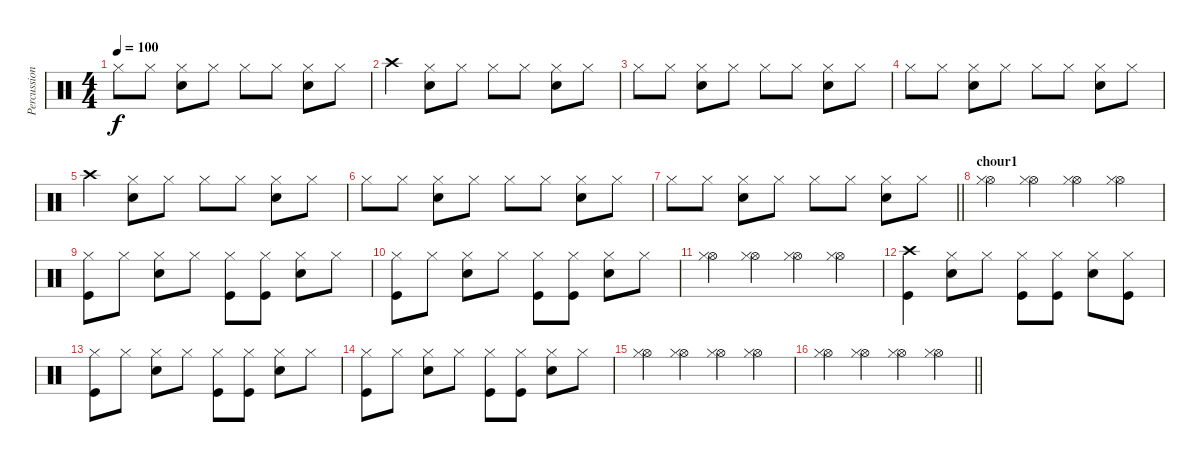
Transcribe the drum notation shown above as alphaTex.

\track ("Percussioni" "Percussion") {instrument percussion}
\staff {score}
\articulation defaults
\ts (4 4)
\tempo 100
\clef neutral
\ks c "Hi-Hat (closed)".8{dy f} "Hi-Hat (closed)".8
("Hi-Hat (closed)" "Snare (hit) 2").8 "Hi-Hat (closed)".8 "Hi-Hat (closed)".8 "Hi-Hat (closed)".8 ("Hi-Hat (closed)" "Snare (hit) 2").8 "Hi-Hat (closed)".8 |
"Crash high (hit)".4 ("Hi-Hat (closed)" "Snare (hit) 2").8 "Hi-Hat (closed)".8 "Hi-Hat (closed)".8 "Hi-Hat (closed)".8 ("Hi-Hat (closed)" "Snare (hit) 2").8 "Hi-Hat (closed)".8 |
"Hi-Hat (closed)".8 "Hi-Hat (closed)".8 ("Hi-Hat (closed)" "Snare (hit) 2").8 "Hi-Hat (closed)".8 "Hi-Hat (closed)".8 "Hi-Hat (closed)".8 ("Hi-Hat (closed)" "Snare (hit) 2").8 "Hi-Hat (closed)".8 |
"Hi-Hat (closed)".8 "Hi-Hat (closed)".8 ("Hi-Hat (closed)" "Snare (hit) 2").8 "Hi-Hat (closed)".8 "Hi-Hat (closed)".8 "Hi-Hat (closed)".8 ("Hi-Hat (closed)" "Snare (hit) 2").8 "Hi-Hat (closed)".8 |
"Crash high (hit)".4 ("Hi-Hat (closed)" "Snare (hit) 2").8 "Hi-Hat (closed)".8 "Hi-Hat (closed)".8 "Hi-Hat (closed)".8 ("Hi-Hat (closed)" "Snare (hit) 2").8 "Hi-Hat (closed)".8 |
"Hi-Hat (closed)".8 "Hi-Hat (closed)".8 ("Hi-Hat (closed)" "Snare (hit) 2").8 "Hi-Hat (closed)".8 "Hi-Hat (closed)".8 "Hi-Hat (closed)".8 ("Hi-Hat (closed)" "Snare (hit) 2").8 "Hi-Hat (closed)".8 |
\barLineRight lightlight "Hi-Hat (closed)".8 "Hi-Hat (closed)".8
("Hi-Hat (closed)" "Snare (hit) 2").8 "Hi-Hat (closed)".8 "Hi-Hat (closed)".8 "Hi-Hat (closed)".8 ("Hi-Hat (closed)" "Snare (hit) 2").8 "Hi-Hat (closed)".8 |
\section ("" "chour1")
("Hi-Hat (open)" "Hi-Hat (closed)").4 ("Hi-Hat (open)" "Hi-Hat (closed)").4 ("Hi-Hat (open)" "Hi-Hat (closed)").4 ("Hi-Hat (open)" "Hi-Hat (closed)").4 |
("Hi-Hat (closed)" "Kick (hit)").8 "Hi-Hat (closed)".8 ("Hi-Hat (closed)" "Snare (hit) 2").8 "Hi-Hat (closed)".8 ("Hi-Hat (closed)" "Kick (hit)").8 ("Hi-Hat (closed)" "Kick (hit)").8 ("Hi-Hat (closed)" "Snare (hit) 2").8 "Hi-Hat (closed)".8 |
("Hi-Hat (closed)" "Kick (hit)").8 "Hi-Hat (closed)".8 ("Hi-Hat (closed)" "Snare (hit) 2").8 "Hi-Hat (closed)".8 ("Hi-Hat (closed)" "Kick (hit)").8 ("Hi-Hat (closed)" "Kick (hit)").8 ("Hi-Hat (closed)" "Snare (hit) 2").8 "Hi-Hat (closed)".8 |
("Hi-Hat (open)" "Hi-Hat (closed)").4 ("Hi-Hat (open)" "Hi-Hat (closed)").4 ("Hi-Hat (open)" "Hi-Hat (closed)").4 ("Hi-Hat (open)" "Hi-Hat (closed)").4 |
("Crash high (hit)" "Kick (hit)").4 ("Hi-Hat (closed)" "Snare (hit) 2").8 "Hi-Hat (closed)".8 ("Hi-Hat (closed)" "Kick (hit)").8 ("Hi-Hat (closed)" "Kick (hit)").8 ("Hi-Hat (closed)" "Snare (hit) 2").8 ("Hi-Hat (closed)" "Kick (hit)").8 |
("Hi-Hat (closed)" "Kick (hit)").8 "Hi-Hat (closed)".8 ("Hi-Hat (closed)" "Snare (hit) 2").8 "Hi-Hat (closed)".8 ("Hi-Hat (closed)" "Kick (hit)").8 ("Hi-Hat (closed)" "Kick (hit)").8 ("Hi-Hat (closed)" "Snare (hit) 2").8 "Hi-Hat (closed)".8 |
("Hi-Hat (closed)" "Kick (hit)").8 "Hi-Hat (closed)".8 ("Hi-Hat (closed)" "Snare (hit) 2").8 "Hi-Hat (closed)".8 ("Hi-Hat (closed)" "Kick (hit)").8 ("Hi-Hat (closed)" "Kick (hit)").8 ("Hi-Hat (closed)" "Snare (hit) 2").8 "Hi-Hat (closed)".8 |
("Hi-Hat (open)" "Hi-Hat (closed)").4 ("Hi-Hat (open)" "Hi-Hat (closed)").4 ("Hi-Hat (open)" "Hi-Hat (closed)").4 ("Hi-Hat (open)" "Hi-Hat (closed)").4 |
\barLineRight lightlight
("Hi-Hat (open)" "Hi-Hat (closed)").4 ("Hi-Hat (open)" "Hi-Hat (closed)").4 ("Hi-Hat (open)" "Hi-Hat (closed)").4 ("Hi-Hat (open)" "Hi-Hat (closed)").4
